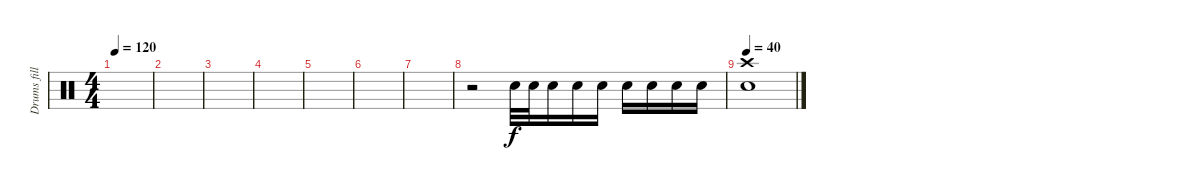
\track ("Drums fills" "Drums fill") {instrument percussion}
\staff {score}
\articulation defaults
\ts (4 4)
\tempo 120
\clef neutral
\ks c
|
|
|
|
|
|
|
r.2 "Electric Snare (hit)".32 "Electric Snare (hit)".32 "Electric Snare (hit)".16 "Electric Snare (hit)".16 "Electric Snare (hit)".16 "Electric Snare (hit)".16 "Electric Snare (hit)".16 "Electric Snare (hit)".16 "Electric Snare (hit)".16 |
\tempo 40
("Crash high (hit)" "Electric Snare (hit)").1
